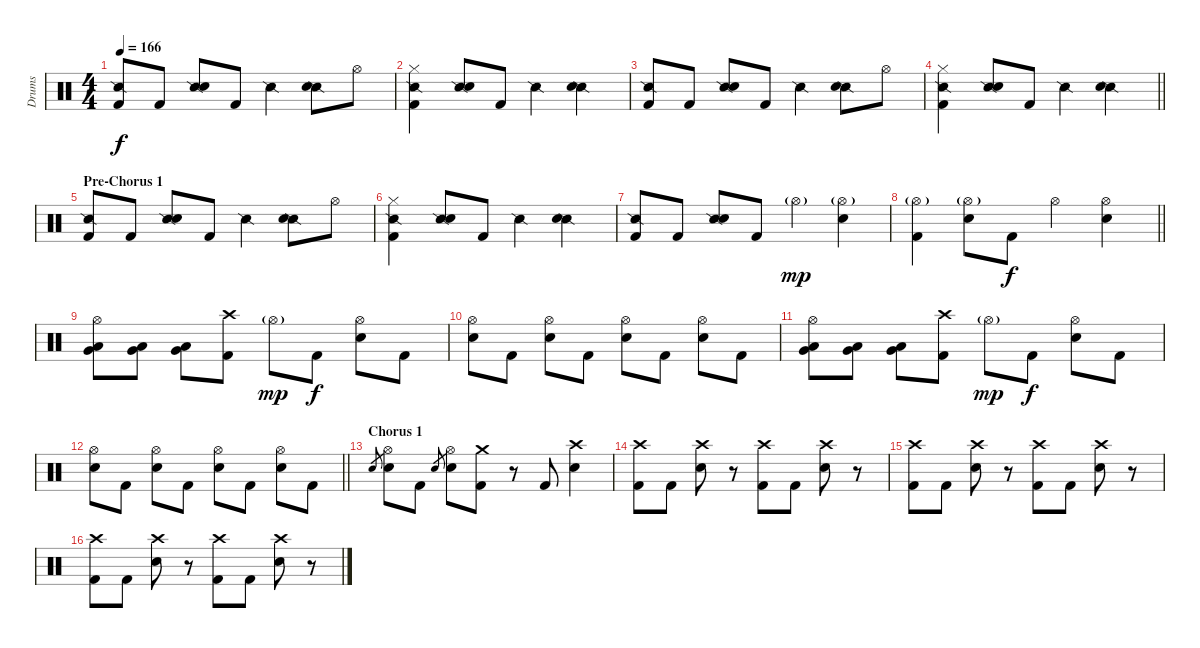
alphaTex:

\track ("Drums" "Drums") {instrument percussion}
\staff {score}
\articulation defaults
\ts (4 4)
\tempo 166
\clef neutral
\ks c
("Snare (side stick) 2" "Kick (hit) 2").8{dy f} "Kick (hit) 2".8 ("Snare (side stick) 2" "Electric Snare (hit)").8 "Kick (hit) 2".8 "Snare (side stick) 2".4 ("Snare (side stick) 2" "Electric Snare (hit)").8 "Hi-Hat (open)".8 |
("Snare (side stick) 2" "Hi-Hat (closed)" "Kick (hit) 2").4 ("Snare (side stick) 2" "Electric Snare (hit)").8 "Kick (hit) 2".8 "Snare (side stick) 2".4 ("Snare (side stick) 2" "Electric Snare (hit)").4 |
("Snare (side stick) 2" "Kick (hit) 2").8 "Kick (hit) 2".8 ("Snare (side stick) 2" "Electric Snare (hit)").8 "Kick (hit) 2".8 "Snare (side stick) 2".4 ("Snare (side stick) 2" "Electric Snare (hit)").8 "Hi-Hat (open)".8 |
\barLineRight lightlight
("Snare (side stick) 2" "Hi-Hat (closed)" "Kick (hit) 2").4 ("Snare (side stick) 2" "Electric Snare (hit)").8 "Kick (hit) 2".8 "Snare (side stick) 2".4 ("Snare (side stick) 2" "Electric Snare (hit)").4 |
\section ("" "Pre-Chorus 1")
("Snare (side stick) 2" "Kick (hit) 2").8 "Kick (hit) 2".8 ("Snare (side stick) 2" "Electric Snare (hit)").8 "Kick (hit) 2".8 "Snare (side stick) 2".4 ("Snare (side stick) 2" "Electric Snare (hit)").8 "Hi-Hat (open)".8 |
("Snare (side stick) 2" "Hi-Hat (closed)" "Kick (hit) 2").4 ("Snare (side stick) 2" "Electric Snare (hit)").8 "Kick (hit) 2".8 "Snare (side stick) 2".4 ("Snare (side stick) 2" "Electric Snare (hit)").4 |
("Snare (side stick) 2" "Kick (hit) 2").8 "Kick (hit) 2".8 ("Snare (side stick) 2" "Electric Snare (hit)").8 "Kick (hit) 2".8 "Hi-Hat (open)"{g}.4{dy mp} ("Hi-Hat (open)"{g} "Electric Snare (hit)").4 |
\barLineRight lightlight
("Hi-Hat (open)"{g} "Kick (hit) 2").4 ("Hi-Hat (open)"{g} "Electric Snare (hit)").8 "Kick (hit) 2".8{dy f} "Hi-Hat (open)".4 ("Hi-Hat (open)" "Electric Snare (hit)").4 |
("Hi-Hat (open)" "Low Tom (hit)" "Very Low Tom (hit)").8 ("Low Tom (hit)" "Very Low Tom (hit)").8 ("Low Tom (hit)" "Very Low Tom (hit)").8 ("Crash high (hit)" "Kick (hit) 2").8 "Hi-Hat (open)"{g}.8{dy mp} "Kick (hit) 2".8{dy f} ("Hi-Hat (open)" "Electric Snare (hit)").8 "Kick (hit) 2".8 |
("Hi-Hat (open)" "Electric Snare (hit)").8 "Kick (hit) 2".8 ("Hi-Hat (open)" "Electric Snare (hit)").8 "Kick (hit) 2".8 ("Hi-Hat (open)" "Electric Snare (hit)").8 "Kick (hit) 2".8 ("Hi-Hat (open)" "Electric Snare (hit)").8 "Kick (hit) 2".8 |
("Hi-Hat (open)" "Low Tom (hit)" "Very Low Tom (hit)").8 ("Low Tom (hit)" "Very Low Tom (hit)").8 ("Low Tom (hit)" "Very Low Tom (hit)").8 ("Crash high (hit)" "Kick (hit) 2").8 "Hi-Hat (open)"{g}.8{dy mp} "Kick (hit) 2".8{dy f} ("Hi-Hat (open)" "Electric Snare (hit)").8 "Kick (hit) 2".8 |
\barLineRight lightlight
("Hi-Hat (open)" "Electric Snare (hit)").8 "Kick (hit) 2".8 ("Hi-Hat (open)" "Electric Snare (hit)").8 "Kick (hit) 2".8 ("Hi-Hat (open)" "Electric Snare (hit)").8 "Kick (hit) 2".8 ("Hi-Hat (open)" "Electric Snare (hit)").8 "Kick (hit) 2".8 |
\section ("" "Chorus 1")
"Electric Snare (hit)".8{gr} ("Hi-Hat (open)" "Electric Snare (hit)").8 "Kick (hit) 2".8 "Electric Snare (hit)".8{gr} ("Hi-Hat (open)" "Electric Snare (hit)").8 ("Crash medium (hit)" "Kick (hit) 2").8 r.8 "Kick (hit) 2".8 ("Crash high (hit)" "Electric Snare (hit)").4 |
("Crash high (hit)" "Kick (hit) 2").8 "Kick (hit) 2".8 ("Crash high (hit)" "Electric Snare (hit)").8 r.8 ("Crash high (hit)" "Kick (hit) 2").8 "Kick (hit) 2".8 ("Crash high (hit)" "Electric Snare (hit)").8 r.8 |
("Crash high (hit)" "Kick (hit) 2").8 "Kick (hit) 2".8 ("Crash high (hit)" "Electric Snare (hit)").8 r.8 ("Crash high (hit)" "Kick (hit) 2").8 "Kick (hit) 2".8 ("Crash high (hit)" "Electric Snare (hit)").8 r.8 |
("Crash high (hit)" "Kick (hit) 2").8 "Kick (hit) 2".8 ("Crash high (hit)" "Electric Snare (hit)").8 r.8 ("Crash high (hit)" "Kick (hit) 2").8 "Kick (hit) 2".8 ("Crash high (hit)" "Electric Snare (hit)").8 r.8
